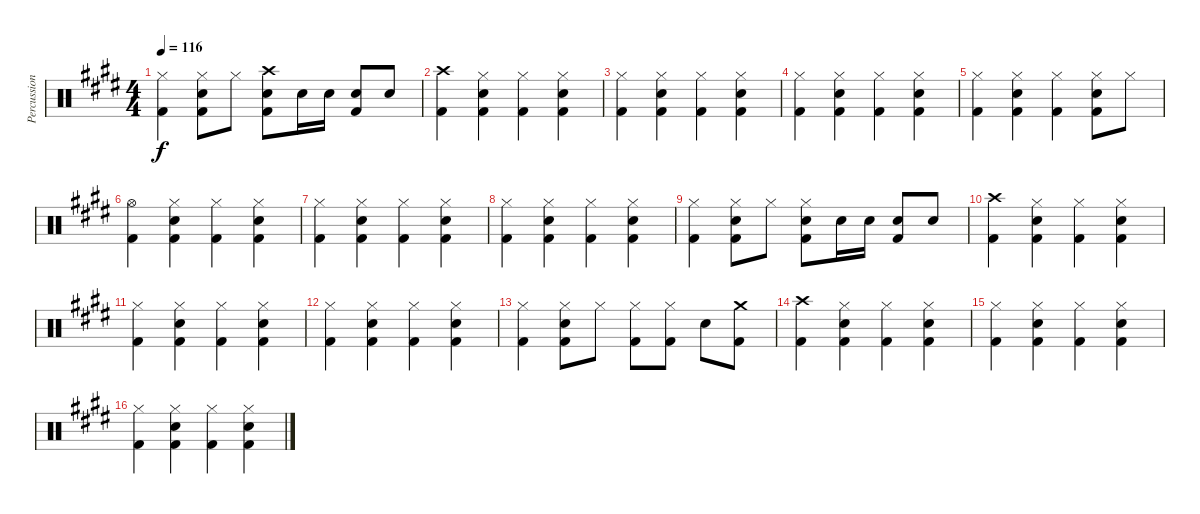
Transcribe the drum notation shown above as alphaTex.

\track ("Percussion" "Percussion") {instrument percussion}
\staff {score}
\articulation defaults
\ts (4 4)
\tempo 116
\clef neutral
\ks e
("Hi-Hat (closed)" "Kick (hit) 2").4{dy f} ("Hi-Hat (closed)" "Snare (hit) 2" "Kick (hit) 2").8 "Hi-Hat (closed)".8 ("Crash high (hit)" "Snare (hit) 2" "Kick (hit) 2").8 "Snare (hit) 2".16 "Snare (hit) 2".16 ("Snare (hit) 2" "Kick (hit) 2").8 "Snare (hit) 2".8 |
("Crash high (hit)" "Kick (hit) 2").4 ("Hi-Hat (closed)" "Snare (hit) 2" "Kick (hit) 2").4 ("Hi-Hat (closed)" "Kick (hit) 2").4 ("Hi-Hat (closed)" "Snare (hit) 2" "Kick (hit) 2").4 |
("Hi-Hat (closed)" "Kick (hit) 2").4 ("Hi-Hat (closed)" "Snare (hit) 2" "Kick (hit) 2").4 ("Hi-Hat (closed)" "Kick (hit) 2").4 ("Hi-Hat (closed)" "Snare (hit) 2" "Kick (hit) 2").4 |
("Hi-Hat (closed)" "Kick (hit) 2").4 ("Hi-Hat (closed)" "Snare (hit) 2" "Kick (hit) 2").4 ("Hi-Hat (closed)" "Kick (hit) 2").4 ("Hi-Hat (closed)" "Snare (hit) 2" "Kick (hit) 2").4 |
("Hi-Hat (closed)" "Kick (hit) 2").4 ("Hi-Hat (closed)" "Snare (hit) 2" "Kick (hit) 2").4 ("Hi-Hat (closed)" "Kick (hit) 2").4 ("Hi-Hat (closed)" "Snare (hit) 2" "Kick (hit) 2").8 "Hi-Hat (closed)".8 |
("Hi-Hat (open)" "Kick (hit) 2").4 ("Hi-Hat (closed)" "Snare (hit) 2" "Kick (hit) 2").4 ("Hi-Hat (closed)" "Kick (hit) 2").4 ("Hi-Hat (closed)" "Snare (hit) 2" "Kick (hit) 2").4 |
("Hi-Hat (closed)" "Kick (hit) 2").4 ("Hi-Hat (closed)" "Snare (hit) 2" "Kick (hit) 2").4 ("Hi-Hat (closed)" "Kick (hit) 2").4 ("Hi-Hat (closed)" "Snare (hit) 2" "Kick (hit) 2").4 |
("Hi-Hat (closed)" "Kick (hit) 2").4 ("Hi-Hat (closed)" "Snare (hit) 2" "Kick (hit) 2").4 ("Hi-Hat (closed)" "Kick (hit) 2").4 ("Hi-Hat (closed)" "Snare (hit) 2" "Kick (hit) 2").4 |
("Hi-Hat (closed)" "Kick (hit) 2").4 ("Hi-Hat (closed)" "Snare (hit) 2" "Kick (hit) 2").8 "Hi-Hat (closed)".8 ("Hi-Hat (closed)" "Snare (hit) 2" "Kick (hit) 2").8 "Snare (hit) 2".16 "Snare (hit) 2".16 ("Snare (hit) 2" "Kick (hit) 2").8 "Snare (hit) 2".8 |
("Crash high (hit)" "Kick (hit) 2").4 ("Hi-Hat (closed)" "Snare (hit) 2" "Kick (hit) 2").4 ("Hi-Hat (closed)" "Kick (hit) 2").4 ("Hi-Hat (closed)" "Snare (hit) 2" "Kick (hit) 2").4 |
("Hi-Hat (closed)" "Kick (hit) 2").4 ("Hi-Hat (closed)" "Snare (hit) 2" "Kick (hit) 2").4 ("Hi-Hat (closed)" "Kick (hit) 2").4 ("Hi-Hat (closed)" "Snare (hit) 2" "Kick (hit) 2").4 |
("Hi-Hat (closed)" "Kick (hit) 2").4 ("Hi-Hat (closed)" "Snare (hit) 2" "Kick (hit) 2").4 ("Hi-Hat (closed)" "Kick (hit) 2").4 ("Hi-Hat (closed)" "Snare (hit) 2" "Kick (hit) 2").4 |
("Hi-Hat (closed)" "Kick (hit) 2").4 ("Hi-Hat (closed)" "Snare (hit) 2" "Kick (hit) 2").8 "Hi-Hat (closed)".8 ("Hi-Hat (closed)" "Kick (hit) 2").8 ("Hi-Hat (closed)" "Kick (hit) 2").8 "Snare (hit) 2".8 ("Crash medium (hit)" "Kick (hit) 2").8 |
("Crash high (hit)" "Kick (hit) 2").4 ("Hi-Hat (closed)" "Snare (hit) 2" "Kick (hit) 2").4 ("Hi-Hat (closed)" "Kick (hit) 2").4 ("Hi-Hat (closed)" "Snare (hit) 2" "Kick (hit) 2").4 |
("Hi-Hat (closed)" "Kick (hit) 2").4 ("Hi-Hat (closed)" "Snare (hit) 2" "Kick (hit) 2").4 ("Hi-Hat (closed)" "Kick (hit) 2").4 ("Hi-Hat (closed)" "Snare (hit) 2" "Kick (hit) 2").4 |
("Hi-Hat (closed)" "Kick (hit) 2").4 ("Hi-Hat (closed)" "Snare (hit) 2" "Kick (hit) 2").4 ("Hi-Hat (closed)" "Kick (hit) 2").4 ("Hi-Hat (closed)" "Snare (hit) 2" "Kick (hit) 2").4
